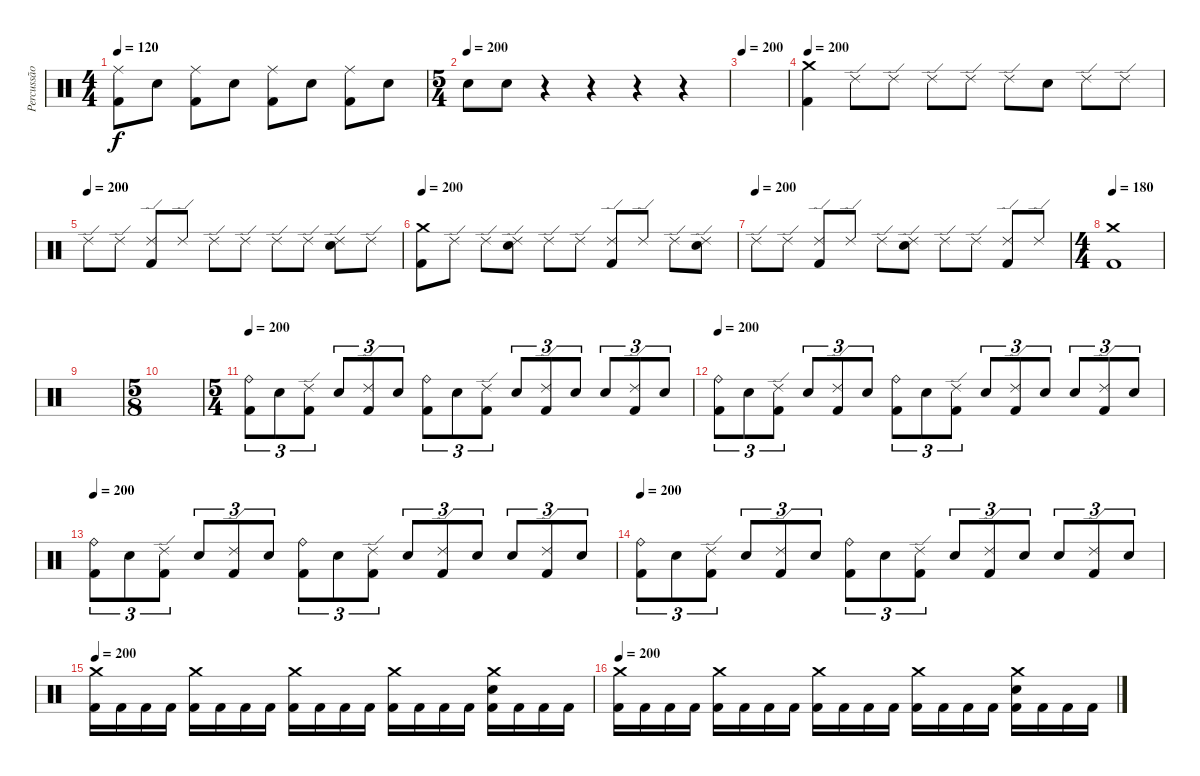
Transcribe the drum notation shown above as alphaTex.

\track ("Percussão" "Percussão") {instrument percussion}
\staff {score}
\articulation defaults
\ts (4 4)
\tempo 120
\clef neutral
\ks c
("Ride (middle)" "Kick (hit) 2").8{dy f} "Snare (hit) 2".8 ("Ride (middle)" "Kick (hit) 2").8 "Snare (hit) 2".8 ("Ride (middle)" "Kick (hit) 2").8 "Snare (hit) 2".8 ("Ride (middle)" "Kick (hit) 2").8 "Snare (hit) 2".8 |
\ts (5 4)
\tempo (200)
"Electric Snare (hit)".8 "Electric Snare (hit)".8 r.4 r.4 r.4 r.4 |
\tempo 200
|
\tempo 200
("Crash medium (hit)" "Kick (hit) 2").4 "Ride (edge) 2".8 "Ride (edge) 2".8 "Ride (edge) 2".8 "Ride (edge) 2".8 "Ride (edge) 2".8 "Electric Snare (hit)".8 "Ride (edge) 2".8 "Ride (edge) 2".8 |
\tempo (200)
"Ride (edge) 2".8 "Ride (edge) 2".8 ("Ride (edge) 2" "Kick (hit) 2").8 "Ride (edge) 2".8 "Ride (edge) 2".8 "Ride (edge) 2".8 "Ride (edge) 2".8 "Ride (edge) 2".8 ("Ride (edge) 2" "Electric Snare (hit)").8 "Ride (edge) 2".8 |
\tempo 200
("Crash medium (hit)" "Kick (hit) 2").8 "Ride (edge) 2".8 "Ride (edge) 2".8 ("Ride (edge) 2" "Electric Snare (hit)").8 "Ride (edge) 2".8 "Ride (edge) 2".8 ("Ride (edge) 2" "Kick (hit) 2").8 "Ride (edge) 2".8 "Ride (edge) 2".8 ("Ride (edge) 2" "Electric Snare (hit)").8 |
\tempo (200)
"Ride (edge) 2".8 "Ride (edge) 2".8 ("Ride (edge) 2" "Kick (hit) 2").8 "Ride (edge) 2".8 "Ride (edge) 2".8 ("Ride (edge) 2" "Electric Snare (hit)").8 "Ride (edge) 2".8 "Ride (edge) 2".8 ("Ride (edge) 2" "Kick (hit) 2").8 "Ride (edge) 2".8 |
\ts (4 4)
\tempo 180
("Crash medium (hit)" "Kick (hit) 2").1 |
|
\ts (5 8)
|
\ts (5 4)
\tempo 200
("Ride (bell)" "Kick (hit) 2").8{tu (3 2)} "Electric Snare (hit)".8{tu (3 2)} ("Ride (edge) 2" "Kick (hit) 2").8{tu (3 2)} "Electric Snare (hit)".8{tu (3 2)} ("Ride (edge) 2" "Kick (hit) 2").8{tu (3 2)} "Electric Snare (hit)".8{tu (3 2)} ("Ride (bell)" "Kick (hit) 2").8{tu (3 2)} "Electric Snare (hit)".8{tu (3 2)} ("Ride (edge) 2" "Kick (hit) 2").8{tu (3 2)} "Electric Snare (hit)".8{tu (3 2)} ("Ride (edge) 2" "Kick (hit) 2").8{tu (3 2)} "Electric Snare (hit)".8{tu (3 2)} "Electric Snare (hit)".8{tu (3 2)} ("Ride (edge) 2" "Kick (hit) 2").8{tu (3 2)} "Electric Snare (hit)".8{tu (3 2)} |
\tempo 200
("Ride (bell)" "Kick (hit) 2").8{tu (3 2)} "Electric Snare (hit)".8{tu (3 2)} ("Ride (edge) 2" "Kick (hit) 2").8{tu (3 2)} "Electric Snare (hit)".8{tu (3 2)} ("Ride (edge) 2" "Kick (hit) 2").8{tu (3 2)} "Electric Snare (hit)".8{tu (3 2)} ("Ride (bell)" "Kick (hit) 2").8{tu (3 2)} "Electric Snare (hit)".8{tu (3 2)} ("Ride (edge) 2" "Kick (hit) 2").8{tu (3 2)} "Electric Snare (hit)".8{tu (3 2)} ("Ride (edge) 2" "Kick (hit) 2").8{tu (3 2)} "Electric Snare (hit)".8{tu (3 2)} "Electric Snare (hit)".8{tu (3 2)} ("Ride (edge) 2" "Kick (hit) 2").8{tu (3 2)} "Electric Snare (hit)".8{tu (3 2)} |
\tempo 200
("Ride (bell)" "Kick (hit) 2").8{tu (3 2)} "Electric Snare (hit)".8{tu (3 2)} ("Ride (edge) 2" "Kick (hit) 2").8{tu (3 2)} "Electric Snare (hit)".8{tu (3 2)} ("Ride (edge) 2" "Kick (hit) 2").8{tu (3 2)} "Electric Snare (hit)".8{tu (3 2)} ("Ride (bell)" "Kick (hit) 2").8{tu (3 2)} "Electric Snare (hit)".8{tu (3 2)} ("Ride (edge) 2" "Kick (hit) 2").8{tu (3 2)} "Electric Snare (hit)".8{tu (3 2)} ("Ride (edge) 2" "Kick (hit) 2").8{tu (3 2)} "Electric Snare (hit)".8{tu (3 2)} "Electric Snare (hit)".8{tu (3 2)} ("Ride (edge) 2" "Kick (hit) 2").8{tu (3 2)} "Electric Snare (hit)".8{tu (3 2)} |
\tempo 200
("Ride (bell)" "Kick (hit) 2").8{tu (3 2)} "Electric Snare (hit)".8{tu (3 2)} ("Ride (edge) 2" "Kick (hit) 2").8{tu (3 2)} "Electric Snare (hit)".8{tu (3 2)} ("Ride (edge) 2" "Kick (hit) 2").8{tu (3 2)} "Electric Snare (hit)".8{tu (3 2)} ("Ride (bell)" "Kick (hit) 2").8{tu (3 2)} "Electric Snare (hit)".8{tu (3 2)} ("Ride (edge) 2" "Kick (hit) 2").8{tu (3 2)} "Electric Snare (hit)".8{tu (3 2)} ("Ride (edge) 2" "Kick (hit) 2").8{tu (3 2)} "Electric Snare (hit)".8{tu (3 2)} "Electric Snare (hit)".8{tu (3 2)} ("Ride (edge) 2" "Kick (hit) 2").8{tu (3 2)} "Electric Snare (hit)".8{tu (3 2)} |
\tempo 200
("Crash medium (hit)" "Kick (hit) 2").16 "Kick (hit) 2".16 "Kick (hit) 2".16 "Kick (hit) 2".16 ("Crash medium (hit)" "Kick (hit) 2").16 "Kick (hit) 2".16 "Kick (hit) 2".16 "Kick (hit) 2".16 ("Crash medium (hit)" "Kick (hit) 2").16 "Kick (hit) 2".16 "Kick (hit) 2".16 "Kick (hit) 2".16 ("Crash medium (hit)" "Kick (hit) 2").16 "Kick (hit) 2".16 "Kick (hit) 2".16 "Kick (hit) 2".16 ("Crash medium (hit)" "Electric Snare (hit)" "Kick (hit) 2").16 "Kick (hit) 2".16 "Kick (hit) 2".16 "Kick (hit) 2".16 |
\tempo 200
("Crash medium (hit)" "Kick (hit) 2").16 "Kick (hit) 2".16 "Kick (hit) 2".16 "Kick (hit) 2".16 ("Crash medium (hit)" "Kick (hit) 2").16 "Kick (hit) 2".16 "Kick (hit) 2".16 "Kick (hit) 2".16 ("Crash medium (hit)" "Kick (hit) 2").16 "Kick (hit) 2".16 "Kick (hit) 2".16 "Kick (hit) 2".16 ("Crash medium (hit)" "Kick (hit) 2").16 "Kick (hit) 2".16 "Kick (hit) 2".16 "Kick (hit) 2".16 ("Crash medium (hit)" "Electric Snare (hit)" "Kick (hit) 2").16 "Kick (hit) 2".16 "Kick (hit) 2".16 "Kick (hit) 2".16
